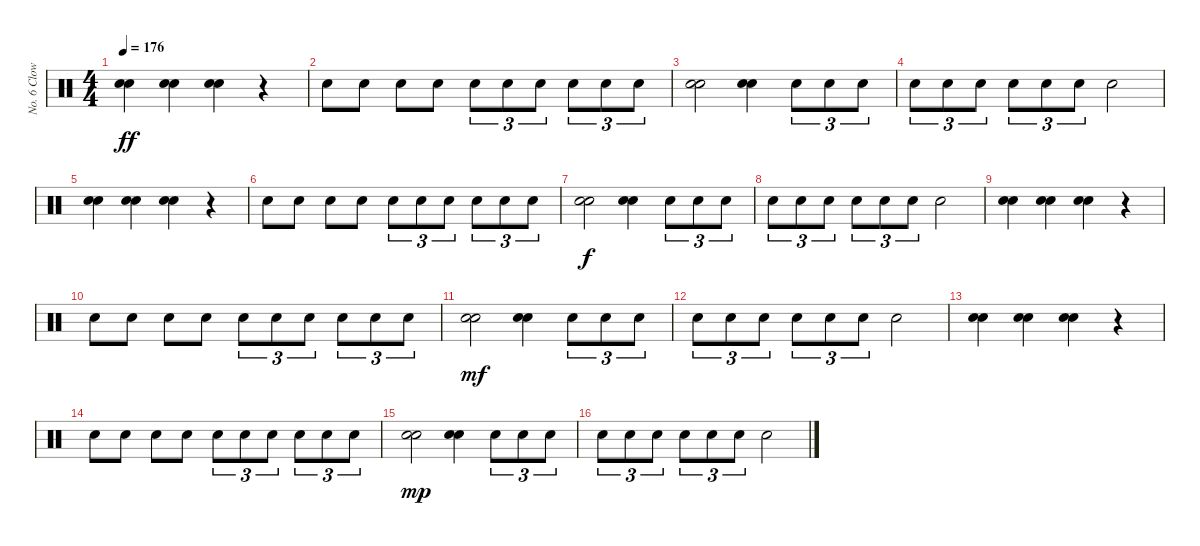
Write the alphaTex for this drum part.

\track ("No. 6 Clown" "No. 6 Clow") {instrument percussion}
\staff {score}
\articulation defaults
\ts (4 4)
\tempo 176
\clef neutral
\ks c
("Electric Snare (hit)" "Electric Snare (hit)").4{dy ff} ("Electric Snare (hit)" "Electric Snare (hit)").4 ("Electric Snare (hit)" "Electric Snare (hit)").4 r.4 |
"Electric Snare (hit)".8 "Electric Snare (hit)".8 "Electric Snare (hit)".8 "Electric Snare (hit)".8 "Electric Snare (hit)".8{tu (3 2)} "Electric Snare (hit)".8{tu (3 2)} "Electric Snare (hit)".8{tu (3 2)} "Electric Snare (hit)".8{tu (3 2)} "Electric Snare (hit)".8{tu (3 2)} "Electric Snare (hit)".8{tu (3 2)} |
("Electric Snare (hit)" "Electric Snare (hit)").2 ("Electric Snare (hit)" "Electric Snare (hit)").4 "Electric Snare (hit)".8{tu (3 2)} "Electric Snare (hit)".8{tu (3 2)} "Electric Snare (hit)".8{tu (3 2)} |
"Electric Snare (hit)".8{tu (3 2)} "Electric Snare (hit)".8{tu (3 2)} "Electric Snare (hit)".8{tu (3 2)} "Electric Snare (hit)".8{tu (3 2)} "Electric Snare (hit)".8{tu (3 2)} "Electric Snare (hit)".8{tu (3 2)} "Electric Snare (hit)".2 |
("Electric Snare (hit)" "Electric Snare (hit)").4 ("Electric Snare (hit)" "Electric Snare (hit)").4 ("Electric Snare (hit)" "Electric Snare (hit)").4 r.4 |
"Electric Snare (hit)".8 "Electric Snare (hit)".8 "Electric Snare (hit)".8 "Electric Snare (hit)".8 "Electric Snare (hit)".8{tu (3 2)} "Electric Snare (hit)".8{tu (3 2)} "Electric Snare (hit)".8{tu (3 2)} "Electric Snare (hit)".8{tu (3 2)} "Electric Snare (hit)".8{tu (3 2)} "Electric Snare (hit)".8{tu (3 2)} |
("Electric Snare (hit)" "Electric Snare (hit)").2{dy f} ("Electric Snare (hit)" "Electric Snare (hit)").4 "Electric Snare (hit)".8{tu (3 2)} "Electric Snare (hit)".8{tu (3 2)} "Electric Snare (hit)".8{tu (3 2)} |
"Electric Snare (hit)".8{tu (3 2)} "Electric Snare (hit)".8{tu (3 2)} "Electric Snare (hit)".8{tu (3 2)} "Electric Snare (hit)".8{tu (3 2)} "Electric Snare (hit)".8{tu (3 2)} "Electric Snare (hit)".8{tu (3 2)} "Electric Snare (hit)".2 |
("Electric Snare (hit)" "Electric Snare (hit)").4 ("Electric Snare (hit)" "Electric Snare (hit)").4 ("Electric Snare (hit)" "Electric Snare (hit)").4 r.4 |
"Electric Snare (hit)".8 "Electric Snare (hit)".8 "Electric Snare (hit)".8 "Electric Snare (hit)".8 "Electric Snare (hit)".8{tu (3 2)} "Electric Snare (hit)".8{tu (3 2)} "Electric Snare (hit)".8{tu (3 2)} "Electric Snare (hit)".8{tu (3 2)} "Electric Snare (hit)".8{tu (3 2)} "Electric Snare (hit)".8{tu (3 2)} |
("Electric Snare (hit)" "Electric Snare (hit)").2{dy mf} ("Electric Snare (hit)" "Electric Snare (hit)").4 "Electric Snare (hit)".8{tu (3 2)} "Electric Snare (hit)".8{tu (3 2)} "Electric Snare (hit)".8{tu (3 2)} |
"Electric Snare (hit)".8{tu (3 2)} "Electric Snare (hit)".8{tu (3 2)} "Electric Snare (hit)".8{tu (3 2)} "Electric Snare (hit)".8{tu (3 2)} "Electric Snare (hit)".8{tu (3 2)} "Electric Snare (hit)".8{tu (3 2)} "Electric Snare (hit)".2 |
("Electric Snare (hit)" "Electric Snare (hit)").4 ("Electric Snare (hit)" "Electric Snare (hit)").4 ("Electric Snare (hit)" "Electric Snare (hit)").4 r.4 |
"Electric Snare (hit)".8 "Electric Snare (hit)".8 "Electric Snare (hit)".8 "Electric Snare (hit)".8 "Electric Snare (hit)".8{tu (3 2)} "Electric Snare (hit)".8{tu (3 2)} "Electric Snare (hit)".8{tu (3 2)} "Electric Snare (hit)".8{tu (3 2)} "Electric Snare (hit)".8{tu (3 2)} "Electric Snare (hit)".8{tu (3 2)} |
("Electric Snare (hit)" "Electric Snare (hit)").2{dy mp} ("Electric Snare (hit)" "Electric Snare (hit)").4 "Electric Snare (hit)".8{tu (3 2)} "Electric Snare (hit)".8{tu (3 2)} "Electric Snare (hit)".8{tu (3 2)} |
"Electric Snare (hit)".8{tu (3 2)} "Electric Snare (hit)".8{tu (3 2)} "Electric Snare (hit)".8{tu (3 2)} "Electric Snare (hit)".8{tu (3 2)} "Electric Snare (hit)".8{tu (3 2)} "Electric Snare (hit)".8{tu (3 2)} "Electric Snare (hit)".2
